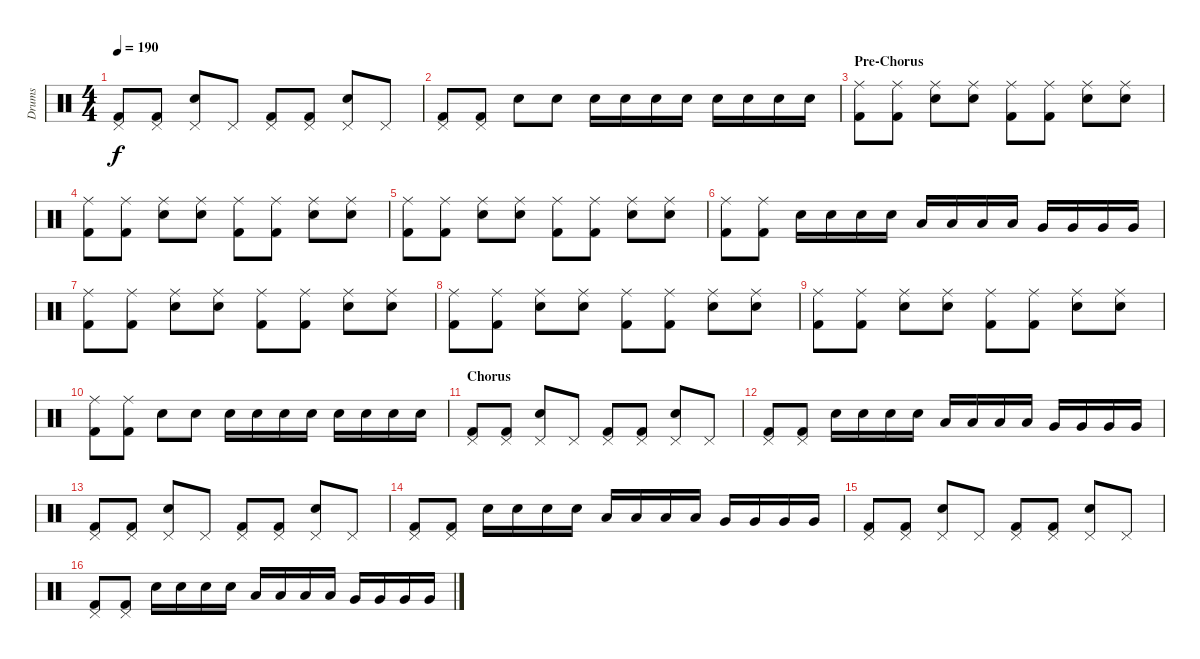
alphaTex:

\track ("Drums" "Drums") {instrument percussion}
\staff {score}
\articulation defaults
\ts (4 4)
\tempo 190
\clef neutral
\ks c
("Kick (hit) 2" "Pedal Hi-Hat (hit)").8{dy f} ("Kick (hit) 2" "Pedal Hi-Hat (hit)").8 ("Electric Snare (hit)" "Pedal Hi-Hat (hit)").8 "Pedal Hi-Hat (hit)".8 ("Kick (hit) 2" "Pedal Hi-Hat (hit)").8 ("Kick (hit) 2" "Pedal Hi-Hat (hit)").8 ("Electric Snare (hit)" "Pedal Hi-Hat (hit)").8 "Pedal Hi-Hat (hit)".8 |
("Kick (hit) 2" "Pedal Hi-Hat (hit)").8 ("Kick (hit) 2" "Pedal Hi-Hat (hit)").8 "Electric Snare (hit)".8 "Electric Snare (hit)".8 "Electric Snare (hit)".16 "Electric Snare (hit)".16 "Electric Snare (hit)".16 "Electric Snare (hit)".16 "Electric Snare (hit)".16 "Electric Snare (hit)".16 "Electric Snare (hit)".16 "Electric Snare (hit)".16 |
\section ("" "Pre-Chorus")
("Kick (hit) 2" "Ride (middle)").8 ("Kick (hit) 2" "Ride (middle)").8 ("Electric Snare (hit)" "Ride (middle)").8 ("Electric Snare (hit)" "Ride (middle)").8 ("Kick (hit) 2" "Ride (middle)").8 ("Kick (hit) 2" "Ride (middle)").8 ("Electric Snare (hit)" "Ride (middle)").8 ("Electric Snare (hit)" "Ride (middle)").8 |
("Kick (hit) 2" "Ride (middle)").8 ("Kick (hit) 2" "Ride (middle)").8 ("Electric Snare (hit)" "Ride (middle)").8 ("Electric Snare (hit)" "Ride (middle)").8 ("Kick (hit) 2" "Ride (middle)").8 ("Kick (hit) 2" "Ride (middle)").8 ("Electric Snare (hit)" "Ride (middle)").8 ("Electric Snare (hit)" "Ride (middle)").8 |
("Kick (hit) 2" "Ride (middle)").8 ("Kick (hit) 2" "Ride (middle)").8 ("Electric Snare (hit)" "Ride (middle)").8 ("Electric Snare (hit)" "Ride (middle)").8 ("Kick (hit) 2" "Ride (middle)").8 ("Kick (hit) 2" "Ride (middle)").8 ("Electric Snare (hit)" "Ride (middle)").8 ("Electric Snare (hit)" "Ride (middle)").8 |
("Kick (hit) 2" "Ride (middle)").8 ("Kick (hit) 2" "Ride (middle)").8 "Electric Snare (hit)".16 "Electric Snare (hit)".16 "Electric Snare (hit)".16 "Electric Snare (hit)".16 "Low Floor Tom (hit)".16 "Low Floor Tom (hit)".16 "Low Floor Tom (hit)".16 "Low Floor Tom (hit)".16 "Very Low Tom (hit)".16 "Very Low Tom (hit)".16 "Very Low Tom (hit)".16 "Very Low Tom (hit)".16 |
("Kick (hit) 2" "Ride (middle)").8 ("Kick (hit) 2" "Ride (middle)").8 ("Electric Snare (hit)" "Ride (middle)").8 ("Electric Snare (hit)" "Ride (middle)").8 ("Kick (hit) 2" "Ride (middle)").8 ("Kick (hit) 2" "Ride (middle)").8 ("Electric Snare (hit)" "Ride (middle)").8 ("Electric Snare (hit)" "Ride (middle)").8 |
("Kick (hit) 2" "Ride (middle)").8 ("Kick (hit) 2" "Ride (middle)").8 ("Electric Snare (hit)" "Ride (middle)").8 ("Electric Snare (hit)" "Ride (middle)").8 ("Kick (hit) 2" "Ride (middle)").8 ("Kick (hit) 2" "Ride (middle)").8 ("Electric Snare (hit)" "Ride (middle)").8 ("Electric Snare (hit)" "Ride (middle)").8 |
("Kick (hit) 2" "Ride (middle)").8 ("Kick (hit) 2" "Ride (middle)").8 ("Electric Snare (hit)" "Ride (middle)").8 ("Electric Snare (hit)" "Ride (middle)").8 ("Kick (hit) 2" "Ride (middle)").8 ("Kick (hit) 2" "Ride (middle)").8 ("Electric Snare (hit)" "Ride (middle)").8 ("Electric Snare (hit)" "Ride (middle)").8 |
("Kick (hit) 2" "Ride (middle)").8 ("Kick (hit) 2" "Ride (middle)").8 "Electric Snare (hit)".8 "Electric Snare (hit)".8 "Electric Snare (hit)".16 "Electric Snare (hit)".16 "Electric Snare (hit)".16 "Electric Snare (hit)".16 "Electric Snare (hit)".16 "Electric Snare (hit)".16 "Electric Snare (hit)".16 "Electric Snare (hit)".16 |
\section ("" "Chorus")
("Kick (hit) 2" "Pedal Hi-Hat (hit)").8 ("Kick (hit) 2" "Pedal Hi-Hat (hit)").8 ("Electric Snare (hit)" "Pedal Hi-Hat (hit)").8 "Pedal Hi-Hat (hit)".8 ("Kick (hit) 2" "Pedal Hi-Hat (hit)").8 ("Kick (hit) 2" "Pedal Hi-Hat (hit)").8 ("Electric Snare (hit)" "Pedal Hi-Hat (hit)").8 "Pedal Hi-Hat (hit)".8 |
("Kick (hit) 2" "Pedal Hi-Hat (hit)").8 ("Kick (hit) 2" "Pedal Hi-Hat (hit)").8 "Electric Snare (hit)".16 "Electric Snare (hit)".16 "Electric Snare (hit)".16 "Electric Snare (hit)".16 "Low Floor Tom (hit)".16 "Low Floor Tom (hit)".16 "Low Floor Tom (hit)".16 "Low Floor Tom (hit)".16 "Very Low Tom (hit)".16 "Very Low Tom (hit)".16 "Very Low Tom (hit)".16 "Very Low Tom (hit)".16 |
("Kick (hit) 2" "Pedal Hi-Hat (hit)").8 ("Kick (hit) 2" "Pedal Hi-Hat (hit)").8 ("Electric Snare (hit)" "Pedal Hi-Hat (hit)").8 "Pedal Hi-Hat (hit)".8 ("Kick (hit) 2" "Pedal Hi-Hat (hit)").8 ("Kick (hit) 2" "Pedal Hi-Hat (hit)").8 ("Electric Snare (hit)" "Pedal Hi-Hat (hit)").8 "Pedal Hi-Hat (hit)".8 |
("Kick (hit) 2" "Pedal Hi-Hat (hit)").8 ("Kick (hit) 2" "Pedal Hi-Hat (hit)").8 "Electric Snare (hit)".16 "Electric Snare (hit)".16 "Electric Snare (hit)".16 "Electric Snare (hit)".16 "Low Floor Tom (hit)".16 "Low Floor Tom (hit)".16 "Low Floor Tom (hit)".16 "Low Floor Tom (hit)".16 "Very Low Tom (hit)".16 "Very Low Tom (hit)".16 "Very Low Tom (hit)".16 "Very Low Tom (hit)".16 |
("Kick (hit) 2" "Pedal Hi-Hat (hit)").8 ("Kick (hit) 2" "Pedal Hi-Hat (hit)").8 ("Electric Snare (hit)" "Pedal Hi-Hat (hit)").8 "Pedal Hi-Hat (hit)".8 ("Kick (hit) 2" "Pedal Hi-Hat (hit)").8 ("Kick (hit) 2" "Pedal Hi-Hat (hit)").8 ("Electric Snare (hit)" "Pedal Hi-Hat (hit)").8 "Pedal Hi-Hat (hit)".8 |
("Kick (hit) 2" "Pedal Hi-Hat (hit)").8 ("Kick (hit) 2" "Pedal Hi-Hat (hit)").8 "Electric Snare (hit)".16 "Electric Snare (hit)".16 "Electric Snare (hit)".16 "Electric Snare (hit)".16 "Low Floor Tom (hit)".16 "Low Floor Tom (hit)".16 "Low Floor Tom (hit)".16 "Low Floor Tom (hit)".16 "Very Low Tom (hit)".16 "Very Low Tom (hit)".16 "Very Low Tom (hit)".16 "Very Low Tom (hit)".16
